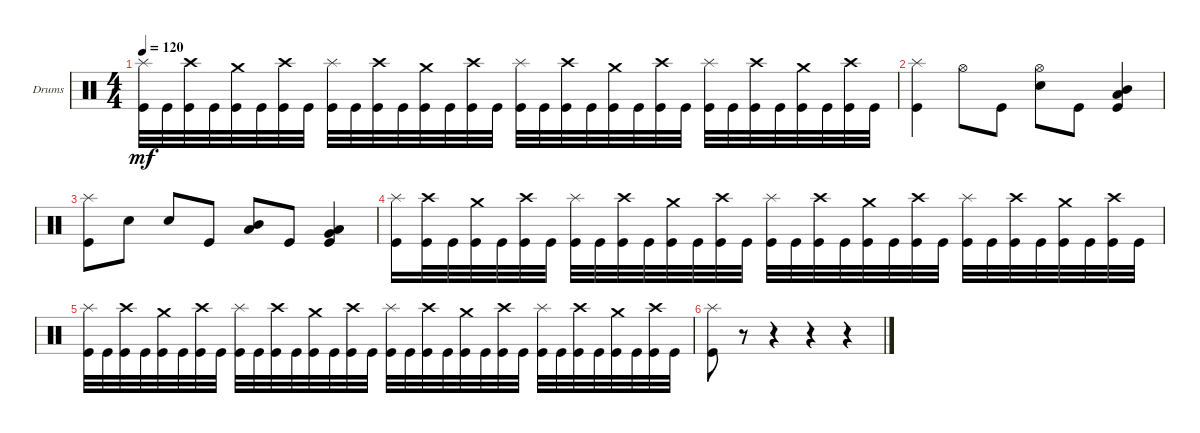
\defaultSystemsLayout 4
\bracketExtendMode groupsimilarinstruments
\firstSystemTrackNameOrientation horizontal
\otherSystemsTrackNameOrientation horizontal
\track ("Drumkit" "Drums") {instrument percussion}
\staff {score}
\articulation defaults
\ts (4 4)
\tempo 120
\clef neutral
\ks c
("Kick (hit)" "Splash (hit)").32{dy mf} "Kick (hit)".32 ("Kick (hit)" "Crash high (hit)").32 "Kick (hit)".32 ("Kick (hit)" "Crash medium (hit)").32 "Kick (hit)".32 ("Kick (hit)" "Crash high (hit)").32 "Kick (hit)".32 ("Kick (hit)" "Splash (hit)").32 "Kick (hit)".32 ("Kick (hit)" "Crash high (hit)").32 "Kick (hit)".32 ("Kick (hit)" "Crash medium (hit)").32 "Kick (hit)".32 ("Kick (hit)" "Crash high (hit)").32 "Kick (hit)".32 ("Kick (hit)" "Splash (hit)").32 "Kick (hit)".32 ("Kick (hit)" "Crash high (hit)").32 "Kick (hit)".32 ("Kick (hit)" "Crash medium (hit)").32 "Kick (hit)".32 ("Kick (hit)" "Crash high (hit)").32 "Kick (hit)".32 ("Kick (hit)" "Splash (hit)").32 "Kick (hit)".32 ("Kick (hit)" "Crash high (hit)").32 "Kick (hit)".32 ("Kick (hit)" "Crash medium (hit)").32 "Kick (hit)".32 ("Kick (hit)" "Crash high (hit)").32 "Kick (hit)".32 |
("Kick (hit)" "Splash (hit)").4 "Hi-Hat (open)".8 "Kick (hit)".8 ("Snare (hit) 2" "Hi-Hat (open)").8 "Kick (hit)".8 ("Kick (hit)" "Mid Tom (hit)" "Low Tom (hit)").4 |
("Kick (hit)" "Splash (hit)").8 "Snare (hit) 2".8 "Snare (hit) 2".8 "Kick (hit)".8 ("Mid Tom (hit)" "Low Tom (hit)").8 "Kick (hit)".8 ("Low Tom (hit)" "Very Low Tom (hit)" "Kick (hit)").4 |
("Kick (hit)" "Splash (hit)").16 ("Kick (hit)" "Crash high (hit)").32 "Kick (hit)".32 ("Kick (hit)" "Crash medium (hit)").32 "Kick (hit)".32 ("Kick (hit)" "Crash high (hit)").32 "Kick (hit)".32 ("Kick (hit)" "Splash (hit)").32 "Kick (hit)".32 ("Kick (hit)" "Crash high (hit)").32 "Kick (hit)".32 ("Kick (hit)" "Crash medium (hit)").32 "Kick (hit)".32 ("Kick (hit)" "Crash high (hit)").32 "Kick (hit)".32 ("Kick (hit)" "Splash (hit)").32 "Kick (hit)".32 ("Kick (hit)" "Crash high (hit)").32 "Kick (hit)".32 ("Kick (hit)" "Crash medium (hit)").32 "Kick (hit)".32 ("Kick (hit)" "Crash high (hit)").32 "Kick (hit)".32 ("Kick (hit)" "Splash (hit)").32 "Kick (hit)".32 ("Kick (hit)" "Crash high (hit)").32 "Kick (hit)".32 ("Kick (hit)" "Crash medium (hit)").32 "Kick (hit)".32 ("Kick (hit)" "Crash high (hit)").32 "Kick (hit)".32 |
("Kick (hit)" "Splash (hit)").32 "Kick (hit)".32 ("Kick (hit)" "Crash high (hit)").32 "Kick (hit)".32 ("Kick (hit)" "Crash medium (hit)").32 "Kick (hit)".32 ("Kick (hit)" "Crash high (hit)").32 "Kick (hit)".32 ("Kick (hit)" "Splash (hit)").32 "Kick (hit)".32 ("Kick (hit)" "Crash high (hit)").32 "Kick (hit)".32 ("Kick (hit)" "Crash medium (hit)").32 "Kick (hit)".32 ("Kick (hit)" "Crash high (hit)").32 "Kick (hit)".32 ("Kick (hit)" "Splash (hit)").32 "Kick (hit)".32 ("Kick (hit)" "Crash high (hit)").32 "Kick (hit)".32 ("Kick (hit)" "Crash medium (hit)").32 "Kick (hit)".32 ("Kick (hit)" "Crash high (hit)").32 "Kick (hit)".32 ("Kick (hit)" "Splash (hit)").32 "Kick (hit)".32 ("Kick (hit)" "Crash high (hit)").32 "Kick (hit)".32 ("Kick (hit)" "Crash medium (hit)").32 "Kick (hit)".32 ("Kick (hit)" "Crash high (hit)").32 "Kick (hit)".32 |
("Kick (hit)" "Splash (hit)").8 r.8 r.4 r.4 r.4
